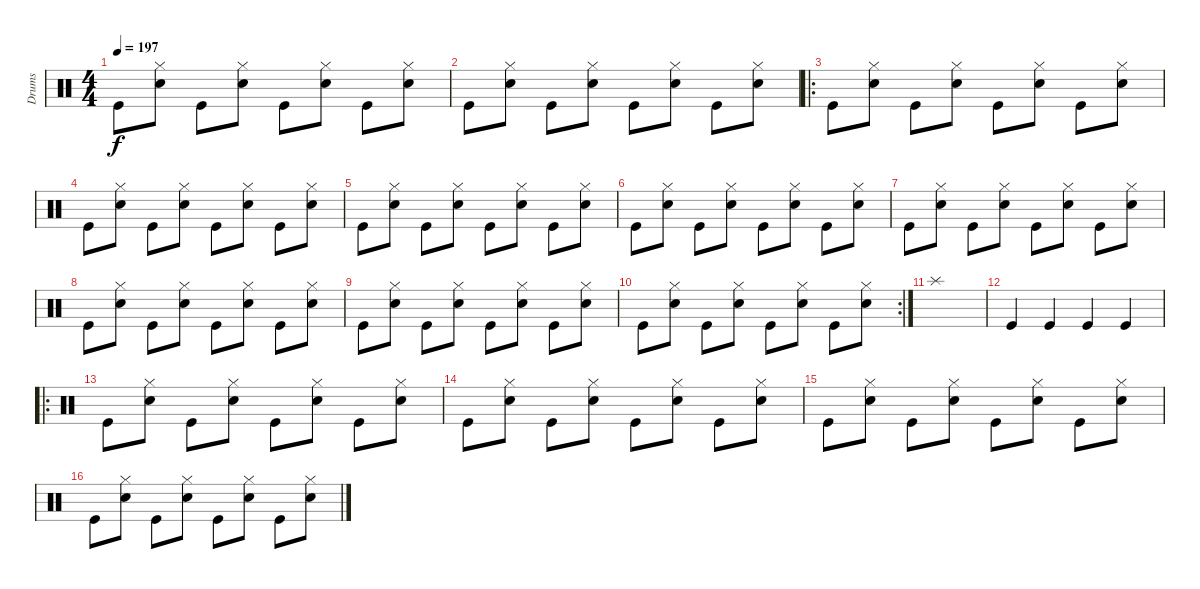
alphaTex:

\track ("Drums" "Drums") {instrument percussion}
\staff {score}
\articulation defaults
\ts (4 4)
\tempo 197
\clef neutral
\ks c "Kick (hit)".8{dy f}
("Hi-Hat (closed)" "Snare (hit) 2").8 "Kick (hit)".8 ("Hi-Hat (closed)" "Snare (hit) 2").8 "Kick (hit)".8 ("Hi-Hat (closed)" "Snare (hit) 2").8 "Kick (hit)".8 ("Hi-Hat (closed)" "Snare (hit) 2").8 |
"Kick (hit)".8 ("Hi-Hat (closed)" "Snare (hit) 2").8 "Kick (hit)".8 ("Hi-Hat (closed)" "Snare (hit) 2").8 "Kick (hit)".8 ("Hi-Hat (closed)" "Snare (hit) 2").8 "Kick (hit)".8 ("Hi-Hat (closed)" "Snare (hit) 2").8 |
\ro "Kick (hit)".8
("Hi-Hat (closed)" "Snare (hit) 2").8 "Kick (hit)".8 ("Hi-Hat (closed)" "Snare (hit) 2").8 "Kick (hit)".8 ("Hi-Hat (closed)" "Snare (hit) 2").8 "Kick (hit)".8 ("Hi-Hat (closed)" "Snare (hit) 2").8 |
"Kick (hit)".8 ("Hi-Hat (closed)" "Snare (hit) 2").8 "Kick (hit)".8 ("Hi-Hat (closed)" "Snare (hit) 2").8 "Kick (hit)".8 ("Hi-Hat (closed)" "Snare (hit) 2").8 "Kick (hit)".8 ("Hi-Hat (closed)" "Snare (hit) 2").8 |
"Kick (hit)".8 ("Hi-Hat (closed)" "Snare (hit) 2").8 "Kick (hit)".8 ("Hi-Hat (closed)" "Snare (hit) 2").8 "Kick (hit)".8 ("Hi-Hat (closed)" "Snare (hit) 2").8 "Kick (hit)".8 ("Hi-Hat (closed)" "Snare (hit) 2").8 |
"Kick (hit)".8 ("Hi-Hat (closed)" "Snare (hit) 2").8 "Kick (hit)".8 ("Hi-Hat (closed)" "Snare (hit) 2").8 "Kick (hit)".8 ("Hi-Hat (closed)" "Snare (hit) 2").8 "Kick (hit)".8 ("Hi-Hat (closed)" "Snare (hit) 2").8 |
"Kick (hit)".8 ("Hi-Hat (closed)" "Snare (hit) 2").8 "Kick (hit)".8 ("Hi-Hat (closed)" "Snare (hit) 2").8 "Kick (hit)".8 ("Hi-Hat (closed)" "Snare (hit) 2").8 "Kick (hit)".8 ("Hi-Hat (closed)" "Snare (hit) 2").8 |
"Kick (hit)".8 ("Hi-Hat (closed)" "Snare (hit) 2").8 "Kick (hit)".8 ("Hi-Hat (closed)" "Snare (hit) 2").8 "Kick (hit)".8 ("Hi-Hat (closed)" "Snare (hit) 2").8 "Kick (hit)".8 ("Hi-Hat (closed)" "Snare (hit) 2").8 |
"Kick (hit)".8 ("Hi-Hat (closed)" "Snare (hit) 2").8 "Kick (hit)".8 ("Hi-Hat (closed)" "Snare (hit) 2").8 "Kick (hit)".8 ("Hi-Hat (closed)" "Snare (hit) 2").8 "Kick (hit)".8 ("Hi-Hat (closed)" "Snare (hit) 2").8 |
\rc 2 "Kick (hit)".8
("Hi-Hat (closed)" "Snare (hit) 2").8 "Kick (hit)".8 ("Hi-Hat (closed)" "Snare (hit) 2").8 "Kick (hit)".8 ("Hi-Hat (closed)" "Snare (hit) 2").8 "Kick (hit)".8 ("Hi-Hat (closed)" "Snare (hit) 2").8 |
"Splash (hit)".1 |
"Kick (hit)".4 "Kick (hit)".4 "Kick (hit)".4 "Kick (hit)".4 |
\ro "Kick (hit)".8
("Hi-Hat (closed)" "Snare (hit) 2").8 "Kick (hit)".8 ("Hi-Hat (closed)" "Snare (hit) 2").8 "Kick (hit)".8 ("Hi-Hat (closed)" "Snare (hit) 2").8 "Kick (hit)".8 ("Hi-Hat (closed)" "Snare (hit) 2").8 |
"Kick (hit)".8 ("Hi-Hat (closed)" "Snare (hit) 2").8 "Kick (hit)".8 ("Hi-Hat (closed)" "Snare (hit) 2").8 "Kick (hit)".8 ("Hi-Hat (closed)" "Snare (hit) 2").8 "Kick (hit)".8 ("Hi-Hat (closed)" "Snare (hit) 2").8 |
"Kick (hit)".8 ("Hi-Hat (closed)" "Snare (hit) 2").8 "Kick (hit)".8 ("Hi-Hat (closed)" "Snare (hit) 2").8 "Kick (hit)".8 ("Hi-Hat (closed)" "Snare (hit) 2").8 "Kick (hit)".8 ("Hi-Hat (closed)" "Snare (hit) 2").8 |
"Kick (hit)".8 ("Hi-Hat (closed)" "Snare (hit) 2").8 "Kick (hit)".8 ("Hi-Hat (closed)" "Snare (hit) 2").8 "Kick (hit)".8 ("Hi-Hat (closed)" "Snare (hit) 2").8 "Kick (hit)".8 ("Hi-Hat (closed)" "Snare (hit) 2").8
